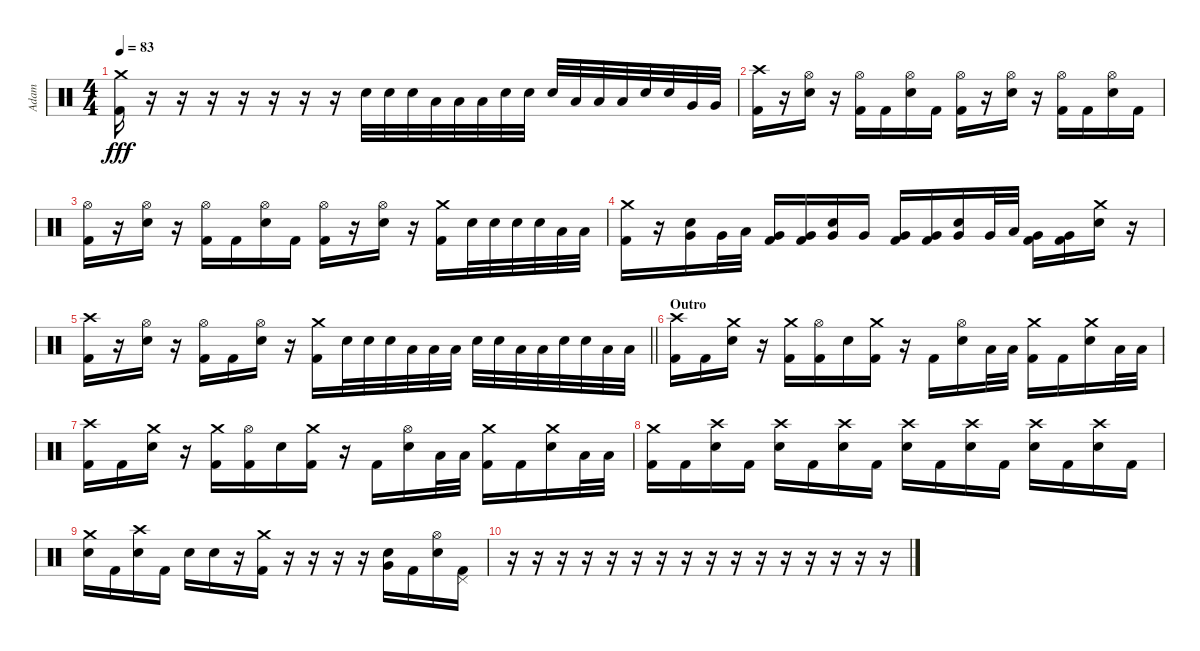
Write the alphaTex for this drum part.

\track ("Adam" "Adam") {instrument percussion}
\staff {score}
\articulation defaults
\ts (4 4)
\tempo 83
\clef neutral
\ks c
("Crash medium (hit)" "Kick (hit) 2").16{dy fff} r.16 r.16 r.16 r.16 r.16 r.16 r.16 "Electric Snare (hit)".32 "Electric Snare (hit)".32 "Electric Snare (hit)".32 "Low Tom (hit)".32 "Low Tom (hit)".32 "Low Tom (hit)".32 "Electric Snare (hit)".32 "Electric Snare (hit)".32 "Electric Snare (hit)".32 "Low Tom (hit)".32 "Low Tom (hit)".32 "Low Tom (hit)".32 "Electric Snare (hit)".32 "Electric Snare (hit)".32 "Very Low Tom (hit)".32 "Very Low Tom (hit)".32 |
("Crash high (hit)" "Kick (hit) 2").16 r.16 ("Hi-Hat (open)" "Electric Snare (hit)").16 r.16 ("Hi-Hat (open)" "Kick (hit) 2").16 "Kick (hit) 2".16 ("Hi-Hat (open)" "Electric Snare (hit)").16 "Kick (hit) 2".16 ("Hi-Hat (open)" "Kick (hit) 2").16 r.16 ("Hi-Hat (open)" "Electric Snare (hit)").16 r.16 ("Hi-Hat (open)" "Kick (hit) 2").16 "Kick (hit) 2".16 ("Hi-Hat (open)" "Electric Snare (hit)").16 "Kick (hit) 2".16 |
("Hi-Hat (open)" "Kick (hit) 2").16 r.16 ("Hi-Hat (open)" "Electric Snare (hit)").16 r.16 ("Hi-Hat (open)" "Kick (hit) 2").16 "Kick (hit) 2".16 ("Hi-Hat (open)" "Electric Snare (hit)").16 "Kick (hit) 2".16 ("Hi-Hat (open)" "Kick (hit) 2").16 r.16 ("Hi-Hat (open)" "Electric Snare (hit)").16 r.16 ("Crash medium (hit)" "Kick (hit) 2").16 "Electric Snare (hit)".32 "Electric Snare (hit)".32 "Electric Snare (hit)".32 "Electric Snare (hit)".32 "Low Tom (hit)".32 "Low Tom (hit)".32 |
("Crash medium (hit)" "Kick (hit) 2").16 r.16 ("Electric Snare (hit)" "Very Low Tom (hit)").16 "Very Low Tom (hit)".32 "Low Tom (hit)".32 ("Very Low Tom (hit)" "Kick (hit) 2").16 ("Very Low Tom (hit)" "Kick (hit) 2").16 ("Electric Snare (hit)" "Very Low Tom (hit)").16 "Very Low Tom (hit)".16 ("Very Low Tom (hit)" "Kick (hit) 2").16 ("Very Low Tom (hit)" "Kick (hit) 2").16 ("Electric Snare (hit)" "Very Low Tom (hit)").16 "Very Low Tom (hit)".32 "Low Tom (hit)".32 ("Very Low Tom (hit)" "Kick (hit) 2").16 ("Very Low Tom (hit)" "Kick (hit) 2").16 ("Crash medium (hit)" "Electric Snare (hit)").16 r.16 |
\barLineRight lightlight
("Crash high (hit)" "Kick (hit) 2").16 r.16 ("Hi-Hat (open)" "Electric Snare (hit)").16 r.16 ("Hi-Hat (open)" "Kick (hit) 2").16 "Kick (hit) 2".16 ("Hi-Hat (open)" "Electric Snare (hit)").16 r.16 ("Crash medium (hit)" "Kick (hit) 2").16 "Electric Snare (hit)".32 "Electric Snare (hit)".32 "Electric Snare (hit)".32 "Low Tom (hit)".32 "Low Tom (hit)".32 "Low Tom (hit)".32 "Electric Snare (hit)".32 "Electric Snare (hit)".32 "Low Tom (hit)".32 "Low Tom (hit)".32 "Electric Snare (hit)".32 "Electric Snare (hit)".32 "Low Tom (hit)".32 "Low Tom (hit)".32 |
\section ("" "Outro")
("Crash high (hit)" "Kick (hit) 2").16 "Kick (hit) 2".16 ("Crash medium (hit)" "Electric Snare (hit)").16 r.16 ("Crash medium (hit)" "Kick (hit) 2").16 ("Hi-Hat (open)" "Kick (hit) 2").16 "Electric Snare (hit)".16 ("Crash medium (hit)" "Kick (hit) 2").16 r.16 "Kick (hit) 2".16 ("Hi-Hat (open)" "Electric Snare (hit)").16 "Low Tom (hit)".32 "Low Tom (hit)".32 ("Crash medium (hit)" "Kick (hit) 2").16 "Kick (hit) 2".16 ("Crash medium (hit)" "Electric Snare (hit)").16 "Low Tom (hit)".32 "Low Tom (hit)".32 |
("Crash high (hit)" "Kick (hit) 2").16 "Kick (hit) 2".16 ("Crash medium (hit)" "Electric Snare (hit)").16 r.16 ("Crash medium (hit)" "Kick (hit) 2").16 ("Hi-Hat (open)" "Kick (hit) 2").16 "Electric Snare (hit)".16 ("Crash medium (hit)" "Kick (hit) 2").16 r.16 "Kick (hit) 2".16 ("Hi-Hat (open)" "Electric Snare (hit)").16 "Low Tom (hit)".32 "Low Tom (hit)".32 ("Crash medium (hit)" "Kick (hit) 2").16 "Kick (hit) 2".16 ("Crash medium (hit)" "Electric Snare (hit)").16 "Low Tom (hit)".32 "Low Tom (hit)".32 |
("Crash medium (hit)" "Kick (hit) 2").16 "Kick (hit) 2".16 ("Crash high (hit)" "Electric Snare (hit)").16 "Kick (hit) 2".16 ("Crash high (hit)" "Electric Snare (hit)").16 "Kick (hit) 2".16 ("Crash high (hit)" "Electric Snare (hit)").16 "Kick (hit) 2".16 ("Crash high (hit)" "Electric Snare (hit)").16 "Kick (hit) 2".16 ("Crash high (hit)" "Electric Snare (hit)").16 "Kick (hit) 2".16 ("Crash high (hit)" "Electric Snare (hit)").16 "Kick (hit) 2".16 ("Crash high (hit)" "Electric Snare (hit)").16 "Kick (hit) 2".16 |
("Crash medium (hit)" "Electric Snare (hit)").16 "Kick (hit) 2".16 ("Crash high (hit)" "Electric Snare (hit)").16 "Kick (hit) 2".16 "Electric Snare (hit)".16 "Electric Snare (hit)".16 r.16 ("Crash medium (hit)" "Kick (hit) 2").16 r.16 r.16 r.16 r.16 ("Electric Snare (hit)" "Very Low Tom (hit)").16 "Kick (hit) 2".16 ("Hi-Hat (open)" "Electric Snare (hit)").16 ("Pedal Hi-Hat (hit)" "Kick (hit) 2").16 |
r.16 r.16 r.16 r.16 r.16 r.16 r.16 r.16 r.16 r.16 r.16 r.16 r.16 r.16 r.16 r.16
